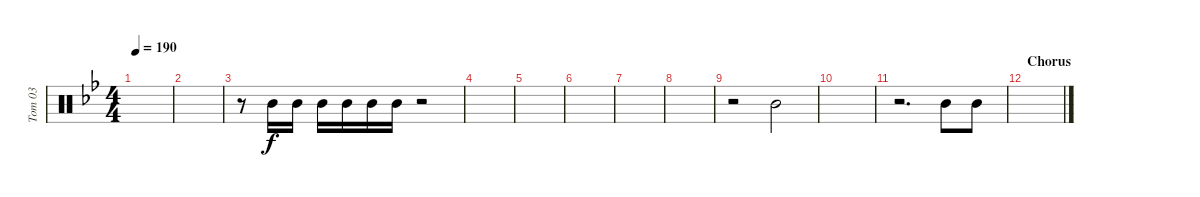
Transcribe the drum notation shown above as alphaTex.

\track ("Tom 03" "Tom 03") {instrument percussion}
\staff {score}
\articulation defaults
\ts (4 4)
\tempo 190
\clef neutral
\ks bb
|
|
r.8 "Mid Tom (hit)".16 "Mid Tom (hit)".16 "Mid Tom (hit)".16 "Mid Tom (hit)".16 "Mid Tom (hit)".16 "Mid Tom (hit)".16 r.2 |
|
|
|
|
|
r.2 "Mid Tom (hit)".2 |
|
r.2{d} "Mid Tom (hit)".8 "Mid Tom (hit)".8 |
\section ("" "Chorus")
